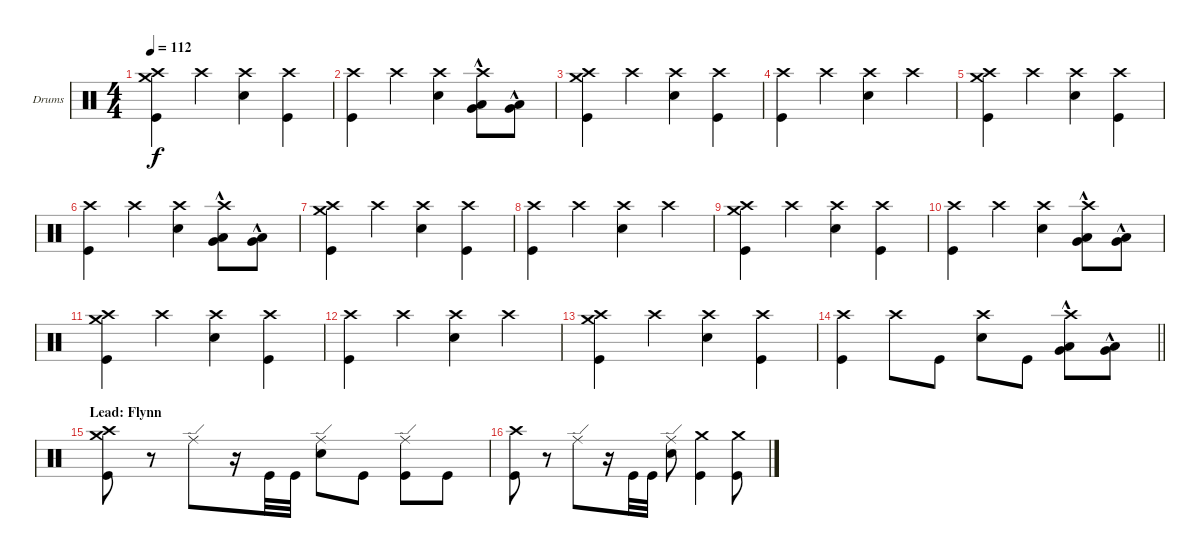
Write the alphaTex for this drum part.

\bracketExtendMode groupsimilarinstruments
\firstSystemTrackNameOrientation horizontal
\otherSystemsTrackNameOrientation horizontal
\track ("Drumkit" "Drums") {instrument percussion}
\staff {score}
\articulation defaults
\ts (4 4)
\tempo 112
\clef neutral
\scale
0.333333
\ks c
("Kick (hit)" "Crash medium (hit)" "Crash high (hit)").4{dy f} "Crash high (hit)".4 ("Crash high (hit)" "Snare (hit) 2").4 ("Crash high (hit)" "Kick (hit)").4 |
\scale
0.333333 ("Kick (hit)" "Crash high (hit)").4 "Crash high (hit)".4 ("Crash high (hit)" "Snare (hit) 2").4 ("Very Low Tom (hit)"{hac} "Low Tom (hit)"{hac} "Crash high (hit)").8 ("Low Tom (hit)"{hac} "Very Low Tom (hit)"{hac}).8 |
\scale
0.333333 ("Kick (hit)" "Crash medium (hit)" "Crash high (hit)").4 "Crash high (hit)".4 ("Crash high (hit)" "Snare (hit) 2").4 ("Crash high (hit)" "Kick (hit)").4 |
\scale
0.333333 ("Kick (hit)" "Crash high (hit)").4 "Crash high (hit)".4 ("Crash high (hit)" "Snare (hit) 2").4 "Crash high (hit)".4 |
\scale
0.333333 ("Kick (hit)" "Crash medium (hit)" "Crash high (hit)").4 "Crash high (hit)".4 ("Crash high (hit)" "Snare (hit) 2").4 ("Crash high (hit)" "Kick (hit)").4 |
\scale
0.333333 ("Kick (hit)" "Crash high (hit)").4 "Crash high (hit)".4 ("Crash high (hit)" "Snare (hit) 2").4 ("Very Low Tom (hit)"{hac} "Low Tom (hit)"{hac} "Crash high (hit)").8 ("Low Tom (hit)"{hac} "Very Low Tom (hit)"{hac}).8 |
\scale
0.333333 ("Kick (hit)" "Crash medium (hit)" "Crash high (hit)").4 "Crash high (hit)".4 ("Crash high (hit)" "Snare (hit) 2").4 ("Crash high (hit)" "Kick (hit)").4 |
\scale
0.333333 ("Kick (hit)" "Crash high (hit)").4 "Crash high (hit)".4 ("Crash high (hit)" "Snare (hit) 2").4 "Crash high (hit)".4 |
\scale
0.333333 ("Kick (hit)" "Crash medium (hit)" "Crash high (hit)").4 "Crash high (hit)".4 ("Crash high (hit)" "Snare (hit) 2").4 ("Crash high (hit)" "Kick (hit)").4 |
\scale
0.333333 ("Kick (hit)" "Crash high (hit)").4 "Crash high (hit)".4 ("Crash high (hit)" "Snare (hit) 2").4 ("Very Low Tom (hit)"{hac} "Low Tom (hit)"{hac} "Crash high (hit)").8 ("Low Tom (hit)"{hac} "Very Low Tom (hit)"{hac}).8 |
\scale
0.333333 ("Kick (hit)" "Crash medium (hit)" "Crash high (hit)").4 "Crash high (hit)".4 ("Crash high (hit)" "Snare (hit) 2").4 ("Crash high (hit)" "Kick (hit)").4 |
\scale
0.333333 ("Kick (hit)" "Crash high (hit)").4 "Crash high (hit)".4 ("Crash high (hit)" "Snare (hit) 2").4 "Crash high (hit)".4 |
\scale
0.333333 ("Kick (hit)" "Crash medium (hit)" "Crash high (hit)").4 "Crash high (hit)".4 ("Crash high (hit)" "Snare (hit) 2").4 ("Crash high (hit)" "Kick (hit)").4 |
\scale
0.333333
\barLineRight lightlight
("Kick (hit)" "Crash high (hit)").4 "Crash high (hit)".8 "Kick (hit)".8 ("Crash high (hit)" "Snare (hit) 2").8 "Kick (hit)".8 ("Very Low Tom (hit)"{hac} "Low Tom (hit)"{hac} "Crash high (hit)").8 ("Low Tom (hit)"{hac} "Very Low Tom (hit)"{hac}).8 |
\section ("" "Lead: Flynn")
\scale
0.333333 ("Kick (hit)" "Crash medium (hit)" "Crash high (hit)").8 r.8 "Ride (edge)".8 r.16 "Kick (hit)".32 "Kick (hit)".32 ("Snare (hit) 2" "Ride (edge)").8 "Kick (hit)".8 ("Kick (hit)" "Ride (edge)").8 "Kick (hit)".8 |
\scale
0.333333 ("Kick (hit)" "Crash high (hit)").8 r.8 "Ride (edge)".8 r.16 "Kick (hit)".32 "Kick (hit)".32 ("Snare (hit) 2" "Ride (edge)").8 ("Kick (hit)" "Crash medium (hit)").4 ("Kick (hit)" "Crash medium (hit)").8
